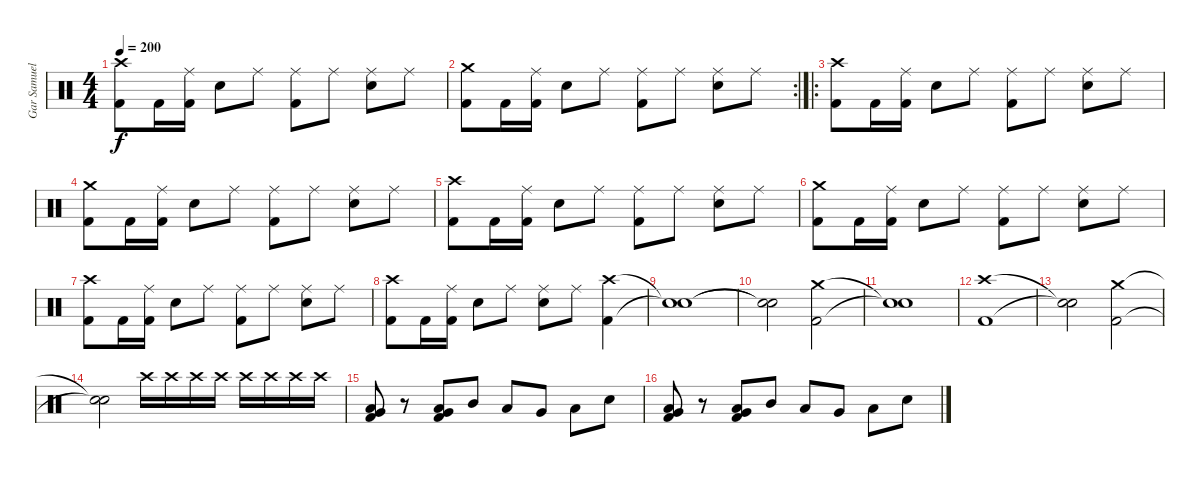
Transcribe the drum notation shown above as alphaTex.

\track ("Gar Samuelson" "Gar Samuel") {instrument percussion}
\staff {score}
\articulation defaults
\ts (4 4)
\tempo 200
\clef neutral
\ks c
("Crash high (hit)" "Kick (hit) 2").8{dy f} "Kick (hit) 2".16 ("Ride (middle)" "Kick (hit) 2").16 "Snare (hit) 2".8 "Ride (middle)".8 ("Ride (middle)" "Kick (hit) 2").8 "Ride (middle)".8 ("Ride (middle)" "Snare (hit) 2").8 "Ride (middle)".8 |
\rc 2
("Crash medium (hit)" "Kick (hit) 2").8 "Kick (hit) 2".16 ("Ride (middle)" "Kick (hit) 2").16 "Snare (hit) 2".8 "Ride (middle)".8 ("Ride (middle)" "Kick (hit) 2").8 "Ride (middle)".8 ("Ride (middle)" "Snare (hit) 2").8 "Ride (middle)".8 |
\ro
("Crash high (hit)" "Kick (hit) 2").8 "Kick (hit) 2".16 ("Ride (middle)" "Kick (hit) 2").16 "Snare (hit) 2".8 "Ride (middle)".8 ("Ride (middle)" "Kick (hit) 2").8 "Ride (middle)".8 ("Ride (middle)" "Snare (hit) 2").8 "Ride (middle)".8 |
("Crash medium (hit)" "Kick (hit) 2").8 "Kick (hit) 2".16 ("Ride (middle)" "Kick (hit) 2").16 "Snare (hit) 2".8 "Ride (middle)".8 ("Ride (middle)" "Kick (hit) 2").8 "Ride (middle)".8 ("Ride (middle)" "Snare (hit) 2").8 "Ride (middle)".8 |
("Crash high (hit)" "Kick (hit) 2").8 "Kick (hit) 2".16 ("Ride (middle)" "Kick (hit) 2").16 "Snare (hit) 2".8 "Ride (middle)".8 ("Ride (middle)" "Kick (hit) 2").8 "Ride (middle)".8 ("Ride (middle)" "Snare (hit) 2").8 "Ride (middle)".8 |
("Crash medium (hit)" "Kick (hit) 2").8 "Kick (hit) 2".16 ("Ride (middle)" "Kick (hit) 2").16 "Snare (hit) 2".8 "Ride (middle)".8 ("Ride (middle)" "Kick (hit) 2").8 "Ride (middle)".8 ("Ride (middle)" "Snare (hit) 2").8 "Ride (middle)".8 |
("Crash high (hit)" "Kick (hit) 2").8 "Kick (hit) 2".16 ("Ride (middle)" "Kick (hit) 2").16 "Snare (hit) 2".8 "Ride (middle)".8 ("Ride (middle)" "Kick (hit) 2").8 "Ride (middle)".8 ("Ride (middle)" "Snare (hit) 2").8 "Ride (middle)".8 |
("Crash high (hit)" "Kick (hit) 2").8 "Kick (hit) 2".16 ("Ride (middle)" "Kick (hit) 2").16 "Snare (hit) 2".8 "Ride (middle)".8 ("Ride (middle)" "Snare (hit) 2").8 "Ride (middle)".8 ("Crash high (hit)" "Kick (hit) 2").4 |
("Snare (hit)"{t} "Snare (hit)"{t}).1 |
("Snare (hit)"{t} "Snare (hit)"{t}).2 ("Crash medium (hit)" "Kick (hit) 2").2 |
("Snare (hit)"{t} "Snare (hit)"{t}).1 |
("Crash high (hit)" "Kick (hit) 2").1 |
("Snare (hit)"{t} "Snare (hit)"{t}).2 ("Crash medium (hit)" "Kick (hit) 2").2 |
("Snare (hit)"{t} "Snare (hit)"{t}).2 "Crash high (hit)".16 "Crash high (hit)".16 "Crash high (hit)".16 "Crash high (hit)".16 "Crash high (hit)".16 "Crash high (hit)".16 "Crash high (hit)".16 "Crash high (hit)".16 |
("Very Low Tom (hit)" "Low Floor Tom (hit)" "Kick (hit) 2").8 r.8 ("Very Low Tom (hit)" "Low Floor Tom (hit)" "Kick (hit) 2").8 "Mid Tom (hit)".8 "Low Tom (hit)".8 "Very Low Tom (hit)".8 "Low Floor Tom (hit)".8 "Snare (hit) 2".8 |
("Very Low Tom (hit)" "Low Floor Tom (hit)" "Kick (hit) 2").8 r.8 ("Very Low Tom (hit)" "Low Floor Tom (hit)" "Kick (hit) 2").8 "Mid Tom (hit)".8 "Low Tom (hit)".8 "Very Low Tom (hit)".8 "Low Floor Tom (hit)".8 "Snare (hit) 2".8
